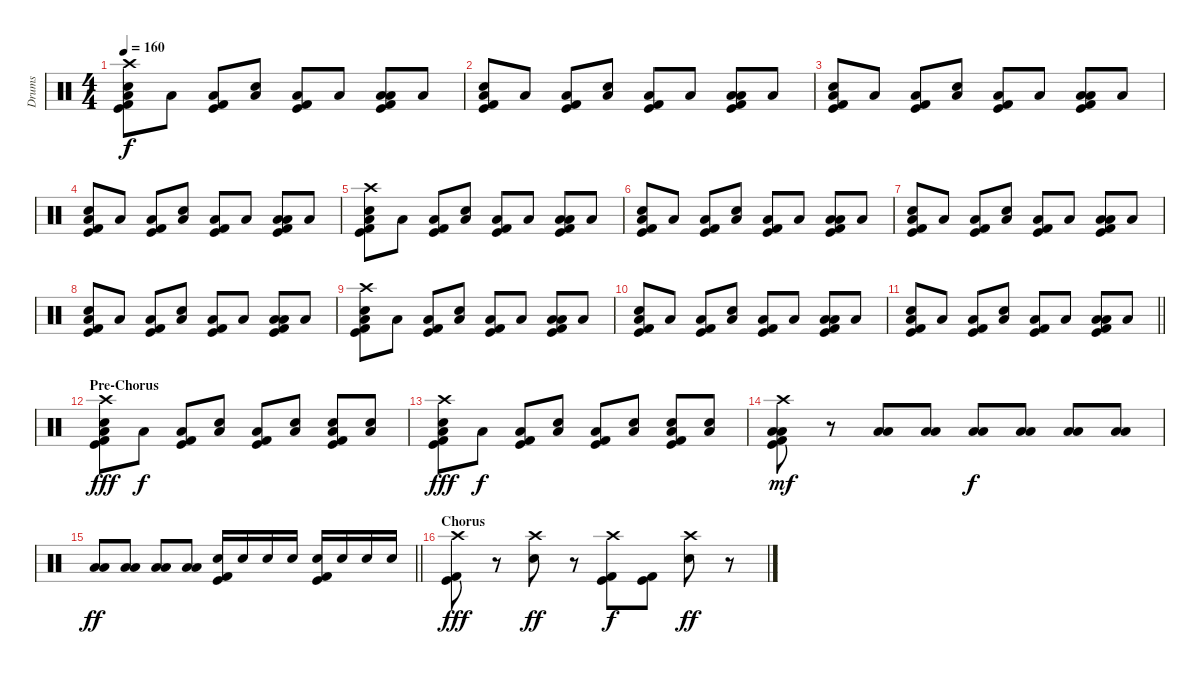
\track ("Drums" "Drums") {instrument percussion}
\staff {score}
\articulation defaults
\ts (4 4)
\tempo 160
\clef neutral
\ks c
("Crash high (hit)" "Snare (hit) 2" "Low Floor Tom (hit)" "Kick (hit)" "Kick (hit) 2").8{dy f} "Low Floor Tom (hit)".8 ("Low Floor Tom (hit)" "Kick (hit)" "Kick (hit) 2").8 ("Snare (hit) 2" "Low Floor Tom (hit)").8 ("Low Floor Tom (hit)" "Kick (hit)" "Kick (hit) 2").8 "Low Floor Tom (hit)".8 ("Low Tom (hit)" "Low Floor Tom (hit)" "Kick (hit)" "Kick (hit) 2").8 "Low Floor Tom (hit)".8 |
("Snare (hit) 2" "Low Floor Tom (hit)" "Kick (hit)" "Kick (hit) 2").8 "Low Floor Tom (hit)".8 ("Low Floor Tom (hit)" "Kick (hit)" "Kick (hit) 2").8 ("Snare (hit) 2" "Low Floor Tom (hit)").8 ("Low Floor Tom (hit)" "Kick (hit)" "Kick (hit) 2").8 "Low Floor Tom (hit)".8 ("Low Tom (hit)" "Low Floor Tom (hit)" "Kick (hit)" "Kick (hit) 2").8 "Low Floor Tom (hit)".8 |
("Snare (hit) 2" "Low Floor Tom (hit)" "Kick (hit)" "Kick (hit) 2").8 "Low Floor Tom (hit)".8 ("Low Floor Tom (hit)" "Kick (hit)" "Kick (hit) 2").8 ("Snare (hit) 2" "Low Floor Tom (hit)").8 ("Low Floor Tom (hit)" "Kick (hit)" "Kick (hit) 2").8 "Low Floor Tom (hit)".8 ("Low Tom (hit)" "Low Floor Tom (hit)" "Kick (hit)" "Kick (hit) 2").8 "Low Floor Tom (hit)".8 |
("Snare (hit) 2" "Low Floor Tom (hit)" "Kick (hit)" "Kick (hit) 2").8 "Low Floor Tom (hit)".8 ("Low Floor Tom (hit)" "Kick (hit)" "Kick (hit) 2").8 ("Snare (hit) 2" "Low Floor Tom (hit)").8 ("Low Floor Tom (hit)" "Kick (hit)" "Kick (hit) 2").8 "Low Floor Tom (hit)".8 ("Low Tom (hit)" "Low Floor Tom (hit)" "Kick (hit)" "Kick (hit) 2").8 "Low Floor Tom (hit)".8 |
("Crash high (hit)" "Snare (hit) 2" "Low Floor Tom (hit)" "Kick (hit)" "Kick (hit) 2").8 "Low Floor Tom (hit)".8 ("Low Floor Tom (hit)" "Kick (hit)" "Kick (hit) 2").8 ("Snare (hit) 2" "Low Floor Tom (hit)").8 ("Low Floor Tom (hit)" "Kick (hit)" "Kick (hit) 2").8 "Low Floor Tom (hit)".8 ("Low Tom (hit)" "Low Floor Tom (hit)" "Kick (hit)" "Kick (hit) 2").8 "Low Floor Tom (hit)".8 |
("Snare (hit) 2" "Low Floor Tom (hit)" "Kick (hit)" "Kick (hit) 2").8 "Low Floor Tom (hit)".8 ("Low Floor Tom (hit)" "Kick (hit)" "Kick (hit) 2").8 ("Snare (hit) 2" "Low Floor Tom (hit)").8 ("Low Floor Tom (hit)" "Kick (hit)" "Kick (hit) 2").8 "Low Floor Tom (hit)".8 ("Low Tom (hit)" "Low Floor Tom (hit)" "Kick (hit)" "Kick (hit) 2").8 "Low Floor Tom (hit)".8 |
("Snare (hit) 2" "Low Floor Tom (hit)" "Kick (hit)" "Kick (hit) 2").8 "Low Floor Tom (hit)".8 ("Low Floor Tom (hit)" "Kick (hit)" "Kick (hit) 2").8 ("Snare (hit) 2" "Low Floor Tom (hit)").8 ("Low Floor Tom (hit)" "Kick (hit)" "Kick (hit) 2").8 "Low Floor Tom (hit)".8 ("Low Tom (hit)" "Low Floor Tom (hit)" "Kick (hit)" "Kick (hit) 2").8 "Low Floor Tom (hit)".8 |
("Snare (hit) 2" "Low Floor Tom (hit)" "Kick (hit)" "Kick (hit) 2").8 "Low Floor Tom (hit)".8 ("Low Floor Tom (hit)" "Kick (hit)" "Kick (hit) 2").8 ("Snare (hit) 2" "Low Floor Tom (hit)").8 ("Low Floor Tom (hit)" "Kick (hit)" "Kick (hit) 2").8 "Low Floor Tom (hit)".8 ("Low Tom (hit)" "Low Floor Tom (hit)" "Kick (hit)" "Kick (hit) 2").8 "Low Floor Tom (hit)".8 |
("Crash high (hit)" "Snare (hit) 2" "Low Floor Tom (hit)" "Kick (hit)" "Kick (hit) 2").8 "Low Floor Tom (hit)".8 ("Low Floor Tom (hit)" "Kick (hit)" "Kick (hit) 2").8 ("Snare (hit) 2" "Low Floor Tom (hit)").8 ("Low Floor Tom (hit)" "Kick (hit)" "Kick (hit) 2").8 "Low Floor Tom (hit)".8 ("Low Tom (hit)" "Low Floor Tom (hit)" "Kick (hit)" "Kick (hit) 2").8 "Low Floor Tom (hit)".8 |
("Snare (hit) 2" "Low Floor Tom (hit)" "Kick (hit)" "Kick (hit) 2").8 "Low Floor Tom (hit)".8 ("Low Floor Tom (hit)" "Kick (hit)" "Kick (hit) 2").8 ("Snare (hit) 2" "Low Floor Tom (hit)").8 ("Low Floor Tom (hit)" "Kick (hit)" "Kick (hit) 2").8 "Low Floor Tom (hit)".8 ("Low Tom (hit)" "Low Floor Tom (hit)" "Kick (hit)" "Kick (hit) 2").8 "Low Floor Tom (hit)".8 |
\barLineRight lightlight
("Snare (hit) 2" "Low Floor Tom (hit)" "Kick (hit)" "Kick (hit) 2").8 "Low Floor Tom (hit)".8 ("Low Floor Tom (hit)" "Kick (hit)" "Kick (hit) 2").8 ("Snare (hit) 2" "Low Floor Tom (hit)").8 ("Low Floor Tom (hit)" "Kick (hit)" "Kick (hit) 2").8 "Low Floor Tom (hit)".8 ("Low Tom (hit)" "Low Floor Tom (hit)" "Kick (hit)" "Kick (hit) 2").8 "Low Floor Tom (hit)".8 |
\section ("" "Pre-Chorus")
("Crash high (hit)" "Snare (hit) 2" "Low Floor Tom (hit)" "Kick (hit)" "Kick (hit) 2").8{dy fff} "Low Floor Tom (hit)".8{dy f} ("Low Floor Tom (hit)" "Kick (hit)" "Kick (hit) 2").8 ("Snare (hit) 2" "Low Floor Tom (hit)").8 ("Low Floor Tom (hit)" "Kick (hit)" "Kick (hit) 2").8 ("Snare (hit) 2" "Low Floor Tom (hit)").8 ("Snare (hit) 2" "Low Floor Tom (hit)" "Kick (hit)" "Kick (hit) 2").8 ("Snare (hit) 2" "Low Floor Tom (hit)").8 |
("Crash high (hit)" "Snare (hit) 2" "Low Floor Tom (hit)" "Kick (hit)" "Kick (hit) 2").8{dy fff} "Low Floor Tom (hit)".8{dy f} ("Low Floor Tom (hit)" "Kick (hit)" "Kick (hit) 2").8 ("Snare (hit) 2" "Low Floor Tom (hit)").8 ("Low Floor Tom (hit)" "Kick (hit)" "Kick (hit) 2").8 ("Snare (hit) 2" "Low Floor Tom (hit)").8 ("Snare (hit) 2" "Low Floor Tom (hit)" "Kick (hit)" "Kick (hit) 2").8 ("Snare (hit) 2" "Low Floor Tom (hit)").8 |
("Crash high (hit)" "Low Tom (hit)" "Low Floor Tom (hit)" "Kick (hit)" "Kick (hit) 2").8{dy mf} r.8 ("Low Tom (hit)" "Low Floor Tom (hit)").8 ("Low Tom (hit)" "Low Floor Tom (hit)").8 ("Low Tom (hit)" "Low Floor Tom (hit)").8{dy f} ("Low Tom (hit)" "Low Floor Tom (hit)").8 ("Low Tom (hit)" "Low Floor Tom (hit)").8 ("Low Tom (hit)" "Low Floor Tom (hit)").8 |
\barLineRight lightlight
("Low Tom (hit)" "Low Floor Tom (hit)").8{dy ff} ("Low Tom (hit)" "Low Floor Tom (hit)").8 ("Low Tom (hit)" "Low Floor Tom (hit)").8 ("Low Tom (hit)" "Low Floor Tom (hit)").8 ("Snare (hit) 2" "Kick (hit)" "Kick (hit) 2").16 "Snare (hit) 2".16 "Snare (hit) 2".16 "Snare (hit) 2".16 ("Snare (hit) 2" "Kick (hit)" "Kick (hit) 2").16 "Snare (hit) 2".16 "Snare (hit) 2".16 "Snare (hit) 2".16 |
\section ("" "Chorus")
("Crash high (hit)" "Kick (hit)" "Kick (hit) 2").8{dy fff} r.8 ("Crash high (hit)" "Snare (hit) 2").8{dy ff} r.8 ("Crash high (hit)" "Kick (hit)" "Kick (hit) 2").8{dy f} ("Kick (hit)" "Kick (hit) 2").8 ("Crash high (hit)" "Snare (hit) 2").8{dy ff} r.8
